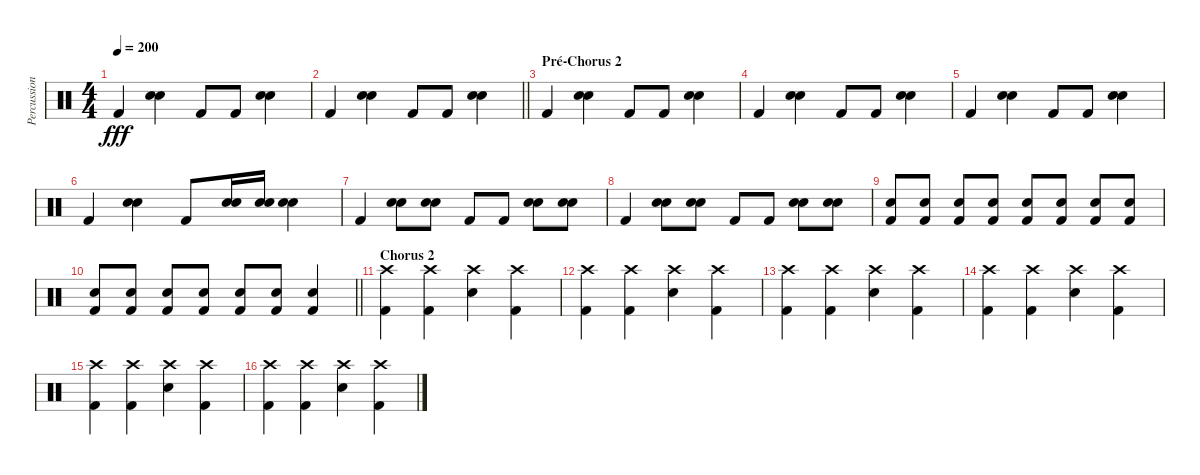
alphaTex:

\track ("Percussions" "Percussion") {instrument percussion}
\staff {score}
\articulation defaults
\ts (4 4)
\tempo 200
\clef neutral
\ks c "Kick (hit) 2".4{dy fff}
("Electric Snare (hit)" "Electric Snare (hit)").4 "Kick (hit) 2".8 "Kick (hit) 2".8 ("Electric Snare (hit)" "Electric Snare (hit)").4 |
\barLineRight lightlight "Kick (hit) 2".4
("Electric Snare (hit)" "Electric Snare (hit)").4 "Kick (hit) 2".8 "Kick (hit) 2".8 ("Electric Snare (hit)" "Electric Snare (hit)").4 |
\section ("" "Pré-Chorus 2")
"Kick (hit) 2".4 ("Electric Snare (hit)" "Electric Snare (hit)").4 "Kick (hit) 2".8 "Kick (hit) 2".8 ("Electric Snare (hit)" "Electric Snare (hit)").4 |
"Kick (hit) 2".4 ("Electric Snare (hit)" "Electric Snare (hit)").4 "Kick (hit) 2".8 "Kick (hit) 2".8 ("Electric Snare (hit)" "Electric Snare (hit)").4 |
"Kick (hit) 2".4 ("Electric Snare (hit)" "Electric Snare (hit)").4 "Kick (hit) 2".8 "Kick (hit) 2".8 ("Electric Snare (hit)" "Electric Snare (hit)").4 |
"Kick (hit) 2".4 ("Electric Snare (hit)" "Electric Snare (hit)").4 "Kick (hit) 2".8 ("Electric Snare (hit)" "Electric Snare (hit)").16 ("Electric Snare (hit)" "Electric Snare (hit)").16 ("Electric Snare (hit)" "Electric Snare (hit)").4 |
"Kick (hit) 2".4 ("Electric Snare (hit)" "Electric Snare (hit)").8 ("Electric Snare (hit)" "Electric Snare (hit)").8 "Kick (hit) 2".8 "Kick (hit) 2".8 ("Electric Snare (hit)" "Electric Snare (hit)").8 ("Electric Snare (hit)" "Electric Snare (hit)").8 |
"Kick (hit) 2".4 ("Electric Snare (hit)" "Electric Snare (hit)").8 ("Electric Snare (hit)" "Electric Snare (hit)").8 "Kick (hit) 2".8 "Kick (hit) 2".8 ("Electric Snare (hit)" "Electric Snare (hit)").8 ("Electric Snare (hit)" "Electric Snare (hit)").8 |
("Electric Snare (hit)" "Kick (hit) 2").8 ("Electric Snare (hit)" "Kick (hit) 2").8 ("Electric Snare (hit)" "Kick (hit) 2").8 ("Electric Snare (hit)" "Kick (hit) 2").8 ("Electric Snare (hit)" "Kick (hit) 2").8 ("Electric Snare (hit)" "Kick (hit) 2").8 ("Electric Snare (hit)" "Kick (hit) 2").8 ("Electric Snare (hit)" "Kick (hit) 2").8 |
\barLineRight lightlight
("Electric Snare (hit)" "Kick (hit) 2").8 ("Electric Snare (hit)" "Kick (hit) 2").8 ("Electric Snare (hit)" "Kick (hit) 2").8 ("Electric Snare (hit)" "Kick (hit) 2").8 ("Electric Snare (hit)" "Kick (hit) 2").8 ("Electric Snare (hit)" "Kick (hit) 2").8 ("Electric Snare (hit)" "Kick (hit) 2").4 |
\section ("" "Chorus 2")
("Crash high (hit)" "Kick (hit) 2").4 ("Crash high (hit)" "Kick (hit) 2").4 ("Crash high (hit)" "Electric Snare (hit)").4 ("Crash high (hit)" "Kick (hit) 2").4 |
("Crash high (hit)" "Kick (hit) 2").4 ("Crash high (hit)" "Kick (hit) 2").4 ("Crash high (hit)" "Electric Snare (hit)").4 ("Crash high (hit)" "Kick (hit) 2").4 |
("Crash high (hit)" "Kick (hit) 2").4 ("Crash high (hit)" "Kick (hit) 2").4 ("Crash high (hit)" "Electric Snare (hit)").4 ("Crash high (hit)" "Kick (hit) 2").4 |
("Crash high (hit)" "Kick (hit) 2").4 ("Crash high (hit)" "Kick (hit) 2").4 ("Crash high (hit)" "Electric Snare (hit)").4 ("Crash high (hit)" "Kick (hit) 2").4 |
("Crash high (hit)" "Kick (hit) 2").4 ("Crash high (hit)" "Kick (hit) 2").4 ("Crash high (hit)" "Electric Snare (hit)").4 ("Crash high (hit)" "Kick (hit) 2").4 |
("Crash high (hit)" "Kick (hit) 2").4 ("Crash high (hit)" "Kick (hit) 2").4 ("Crash high (hit)" "Electric Snare (hit)").4 ("Crash high (hit)" "Kick (hit) 2").4
